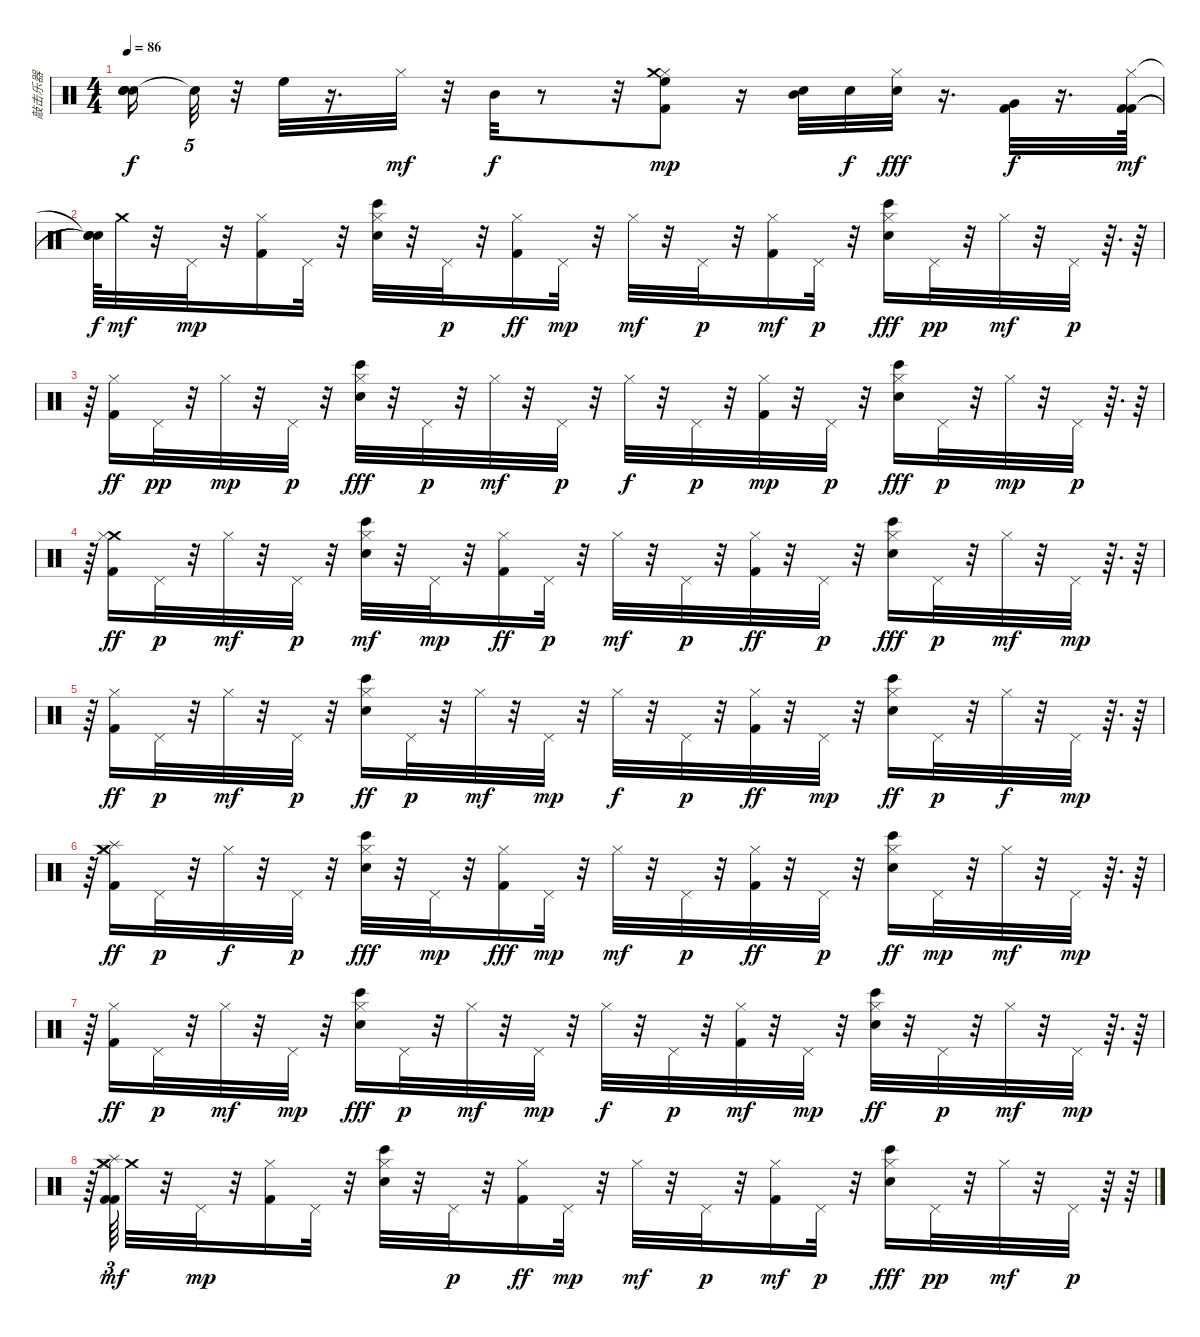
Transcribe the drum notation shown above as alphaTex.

\track ("敲击乐器" "敲击乐器") {instrument percussion}
\staff {score}
\articulation defaults
\ts (4 4)
\tempo 86
\clef neutral
\ks c
("Snare (hit)"{t} "Snare (hit)"{t} "Snare (hit)"{t} "Snare (hit)"{t}).16{dy f} "Snare (hit)"{t}.32{tu (5 4)} r.32 "High Floor Tom (hit)".32 r.16{d} "Hi-Hat (closed)".32{dy mf} r.32 "Mid Tom (hit)".32{dy f} r.8 r.32 ("Hi-Hat (closed)" "High Floor Tom (hit)" "Kick (hit) 2" "Crash medium (hit)").8{dy mp} r.16 ("Electric Snare (hit)" "Mid Tom (hit)").32 "Electric Snare (hit)".32{dy f} ("Hi-Hat (closed)" "Electric Snare (hit)").32{dy fff} r.16{d} ("Very Low Tom (hit)" "Kick (hit) 2").32{dy f} r.16{d} ("Hi-Hat (closed)" "Kick (hit) 2" "Kick (hit) 2").64{dy mf} |
("Snare (hit)"{t} "Snare (hit)"{t} "Snare (hit)"{t}).64{dy f} "Crash medium (hit)".32{dy mf} r.32 "Pedal Hi-Hat (hit)".32{dy mp} r.32 ("Hi-Hat (closed)" "Kick (hit) 2").16 "Pedal Hi-Hat (hit)".32 r.32 ("Hi-Hat (closed)" "Electric Snare (hit)" "Bongo High (hit)").32 r.32 "Pedal Hi-Hat (hit)".32{dy p} r.32 ("Hi-Hat (closed)" "Kick (hit) 2").16{dy ff} "Pedal Hi-Hat (hit)".32{dy mp} r.32 "Hi-Hat (closed)".32{dy mf} r.32 "Pedal Hi-Hat (hit)".32{dy p} r.32 ("Hi-Hat (closed)" "Kick (hit) 2").16{dy mf} "Pedal Hi-Hat (hit)".32{dy p} r.32 ("Hi-Hat (closed)" "Electric Snare (hit)" "Bongo High (hit)").16{dy fff} "Pedal Hi-Hat (hit)".32{dy pp} r.32 "Hi-Hat (closed)".32{dy mf} r.32 "Pedal Hi-Hat (hit)".32{dy p} r.64{d} r.64 |
r.64 ("Hi-Hat (closed)" "Kick (hit) 2").16{dy ff} "Pedal Hi-Hat (hit)".32{dy pp} r.32 "Hi-Hat (closed)".32{dy mp} r.32 "Pedal Hi-Hat (hit)".32{dy p} r.32 ("Hi-Hat (closed)" "Electric Snare (hit)" "Bongo High (hit)").32{dy fff} r.32 "Pedal Hi-Hat (hit)".32{dy p} r.32 "Hi-Hat (closed)".32{dy mf} r.32 "Pedal Hi-Hat (hit)".32{dy p} r.32 "Hi-Hat (closed)".32{dy f} r.32 "Pedal Hi-Hat (hit)".32{dy p} r.32 ("Hi-Hat (closed)" "Kick (hit) 2").32{dy mp} r.32 "Pedal Hi-Hat (hit)".32{dy p} r.32 ("Hi-Hat (closed)" "Electric Snare (hit)" "Bongo High (hit)").16{dy fff} "Pedal Hi-Hat (hit)".32{dy p} r.32 "Hi-Hat (closed)".32{dy mp} r.32 "Pedal Hi-Hat (hit)".32{dy p} r.64{d} r.64 |
r.64 ("Crash medium (hit)" "Hi-Hat (closed)" "Kick (hit) 2").16{dy ff} "Pedal Hi-Hat (hit)".32{dy p} r.32 "Hi-Hat (closed)".32{dy mf} r.32 "Pedal Hi-Hat (hit)".32{dy p} r.32 ("Hi-Hat (closed)" "Electric Snare (hit)" "Bongo High (hit)").32{dy mf} r.32 "Pedal Hi-Hat (hit)".32{dy mp} r.32 ("Hi-Hat (closed)" "Kick (hit) 2").16{dy ff} "Pedal Hi-Hat (hit)".32{dy p} r.32 "Hi-Hat (closed)".32{dy mf} r.32 "Pedal Hi-Hat (hit)".32{dy p} r.32 ("Hi-Hat (closed)" "Kick (hit) 2").32{dy ff} r.32 "Pedal Hi-Hat (hit)".32{dy p} r.32 ("Hi-Hat (closed)" "Electric Snare (hit)" "Bongo High (hit)").16{dy fff} "Pedal Hi-Hat (hit)".32{dy p} r.32 "Hi-Hat (closed)".32{dy mf} r.32 "Pedal Hi-Hat (hit)".32{dy mp} r.64{d} r.64 |
r.64 ("Hi-Hat (closed)" "Kick (hit) 2").16{dy ff} "Pedal Hi-Hat (hit)".32{dy p} r.32 "Hi-Hat (closed)".32{dy mf} r.32 "Pedal Hi-Hat (hit)".32{dy p} r.32 ("Hi-Hat (closed)" "Electric Snare (hit)" "Bongo High (hit)").16{dy ff} "Pedal Hi-Hat (hit)".32{dy p} r.32 "Hi-Hat (closed)".32{dy mf} r.32 "Pedal Hi-Hat (hit)".32{dy mp} r.32 "Hi-Hat (closed)".32{dy f} r.32 "Pedal Hi-Hat (hit)".32{dy p} r.32 ("Hi-Hat (closed)" "Kick (hit) 2").32{dy ff} r.32 "Pedal Hi-Hat (hit)".32{dy mp} r.32 ("Hi-Hat (closed)" "Electric Snare (hit)" "Bongo High (hit)").16{dy ff} "Pedal Hi-Hat (hit)".32{dy p} r.32 "Hi-Hat (closed)".32{dy f} r.32 "Pedal Hi-Hat (hit)".32{dy mp} r.64{d} r.64 |
r.64 ("Splash (hit)" "Crash medium (hit)" "Hi-Hat (closed)" "Kick (hit) 2").16{dy ff} "Pedal Hi-Hat (hit)".32{dy p} r.32 "Hi-Hat (closed)".32{dy f} r.32 "Pedal Hi-Hat (hit)".32{dy p} r.32 ("Hi-Hat (closed)" "Bongo High (hit)" "Electric Snare (hit)").32{dy fff} r.32 "Pedal Hi-Hat (hit)".32{dy mp} r.32 ("Hi-Hat (closed)" "Kick (hit) 2").16{dy fff} "Pedal Hi-Hat (hit)".32{dy mp} r.32 "Hi-Hat (closed)".32{dy mf} r.32 "Pedal Hi-Hat (hit)".32{dy p} r.32 ("Hi-Hat (closed)" "Kick (hit) 2").32{dy ff} r.32 "Pedal Hi-Hat (hit)".32{dy p} r.32 ("Hi-Hat (closed)" "Bongo High (hit)" "Electric Snare (hit)").16{dy ff} "Pedal Hi-Hat (hit)".32{dy mp} r.32 "Hi-Hat (closed)".32{dy mf} r.32 "Pedal Hi-Hat (hit)".32{dy mp} r.64{d} r.64 |
r.64 ("Hi-Hat (closed)" "Kick (hit) 2").16{dy ff} "Pedal Hi-Hat (hit)".32{dy p} r.32 "Hi-Hat (closed)".32{dy mf} r.32 "Pedal Hi-Hat (hit)".32{dy mp} r.32 ("Hi-Hat (closed)" "Bongo High (hit)" "Electric Snare (hit)").16{dy fff} "Pedal Hi-Hat (hit)".32{dy p} r.32 "Hi-Hat (closed)".32{dy mf} r.32 "Pedal Hi-Hat (hit)".32{dy mp} r.32 "Hi-Hat (closed)".32{dy f} r.32 "Pedal Hi-Hat (hit)".32{dy p} r.32 ("Hi-Hat (closed)" "Kick (hit) 2").32{dy mf} r.32 "Pedal Hi-Hat (hit)".32{dy mp} r.32 ("Hi-Hat (closed)" "Electric Snare (hit)" "Bongo High (hit)").32{dy ff} r.32 "Pedal Hi-Hat (hit)".32{dy p} r.32 "Hi-Hat (closed)".32{dy mf} r.32 "Pedal Hi-Hat (hit)".32{dy mp} r.64{d} r.64 |
r.64 ("Splash (hit)" "Crash medium (hit)" "Hi-Hat (closed)" "Kick (hit) 2" "Kick (hit) 2").64{tu (3 2) dy mf} "Crash medium (hit)".32 r.32 "Pedal Hi-Hat (hit)".32{dy mp} r.32 ("Hi-Hat (closed)" "Kick (hit) 2").16 "Pedal Hi-Hat (hit)".32 r.32 ("Hi-Hat (closed)" "Electric Snare (hit)" "Bongo High (hit)").32 r.32 "Pedal Hi-Hat (hit)".32{dy p} r.32 ("Hi-Hat (closed)" "Kick (hit) 2").16{dy ff} "Pedal Hi-Hat (hit)".32{dy mp} r.32 "Hi-Hat (closed)".32{dy mf} r.32 "Pedal Hi-Hat (hit)".32{dy p} r.32 ("Hi-Hat (closed)" "Kick (hit) 2").16{dy mf} "Pedal Hi-Hat (hit)".32{dy p} r.32 ("Hi-Hat (closed)" "Electric Snare (hit)" "Bongo High (hit)").16{dy fff} "Pedal Hi-Hat (hit)".32{dy pp} r.32 "Hi-Hat (closed)".32{dy mf} r.32 "Pedal Hi-Hat (hit)".32{dy p} r.64 r.64
